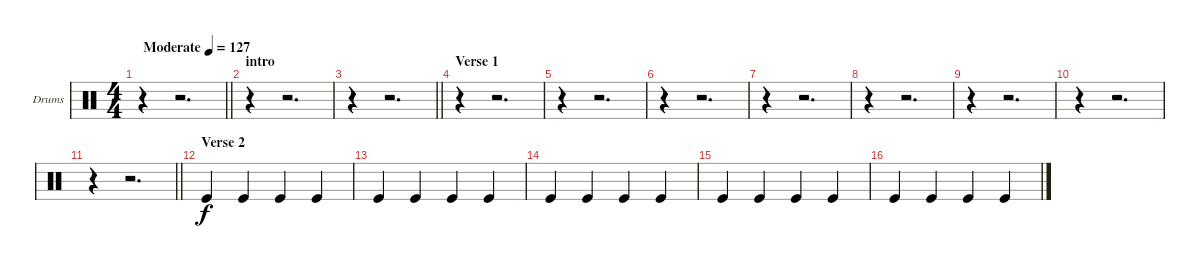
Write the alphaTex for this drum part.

\bracketExtendMode groupsimilarinstruments
\firstSystemTrackNameOrientation horizontal
\otherSystemsTrackNameOrientation horizontal
\track ("Drumkit" "Drums") {instrument percussion}
\staff {score}
\articulation defaults
\ts (4 4)
\beaming (8 2 2 2 2)
\tempo (127 "Moderate")
\clef neutral
\barLineRight lightlight
\ks c
r.4{dy f} r.2{d} |
\section ("" "intro")
r.4 r.2{d} |
\barLineRight lightlight
r.4 r.2{d} |
\section ("" "Verse 1")
r.4 r.2{d} |
r.4 r.2{d} |
r.4 r.2{d} |
r.4 r.2{d} |
r.4 r.2{d} |
r.4 r.2{d} |
r.4 r.2{d} |
\barLineRight lightlight
r.4 r.2{d} |
\section ("" "Verse 2")
"Kick (hit)".4 "Kick (hit)".4 "Kick (hit)".4 "Kick (hit)".4 |
"Kick (hit)".4 "Kick (hit)".4 "Kick (hit)".4 "Kick (hit)".4 |
"Kick (hit)".4 "Kick (hit)".4 "Kick (hit)".4 "Kick (hit)".4 |
"Kick (hit)".4 "Kick (hit)".4 "Kick (hit)".4 "Kick (hit)".4 |
"Kick (hit)".4 "Kick (hit)".4 "Kick (hit)".4 "Kick (hit)".4
